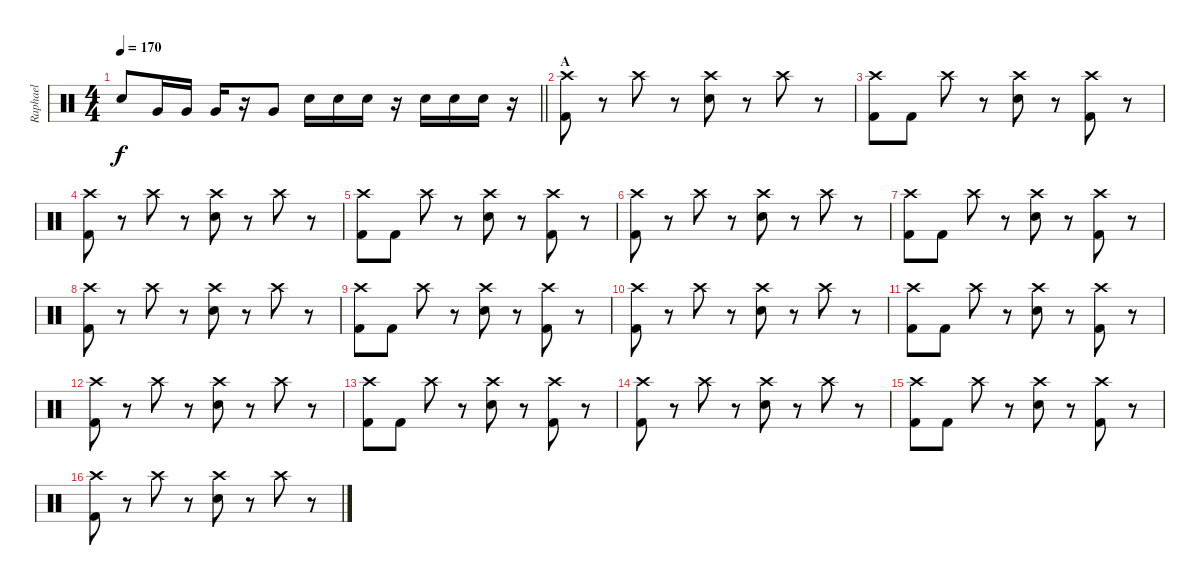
\track ("Raphael" "Raphael") {instrument percussion}
\staff {score}
\articulation defaults
\ts (4 4)
\tempo 170
\clef neutral
\barLineRight lightlight
\ks c "Snare (hit) 2".8{dy f} "Very Low Tom (hit)".16 "Very Low Tom (hit)".16 "Very Low Tom (hit)".16
r.16 "Very Low Tom (hit)".8 "Snare (hit) 2".16 "Snare (hit) 2".16 "Snare (hit) 2".16 r.16 "Snare (hit) 2".16 "Snare (hit) 2".16 "Snare (hit) 2".16 r.16 |
\section ("" "A")
("Kick (hit) 2" "Crash high (hit)").8 r.8 "Crash high (hit)".8 r.8 ("Snare (hit) 2" "Crash high (hit)").8 r.8 "Crash high (hit)".8 r.8 |
("Kick (hit) 2" "Crash high (hit)").8 "Kick (hit) 2".8 "Crash high (hit)".8 r.8 ("Snare (hit) 2" "Crash high (hit)").8 r.8 ("Kick (hit) 2" "Crash high (hit)").8 r.8 |
("Kick (hit) 2" "Crash high (hit)").8 r.8 "Crash high (hit)".8 r.8 ("Snare (hit) 2" "Crash high (hit)").8 r.8 "Crash high (hit)".8 r.8 |
("Kick (hit) 2" "Crash high (hit)").8 "Kick (hit) 2".8 "Crash high (hit)".8 r.8 ("Snare (hit) 2" "Crash high (hit)").8 r.8 ("Kick (hit) 2" "Crash high (hit)").8 r.8 |
("Kick (hit) 2" "Crash high (hit)").8 r.8 "Crash high (hit)".8 r.8 ("Snare (hit) 2" "Crash high (hit)").8 r.8 "Crash high (hit)".8 r.8 |
("Kick (hit) 2" "Crash high (hit)").8 "Kick (hit) 2".8 "Crash high (hit)".8 r.8 ("Snare (hit) 2" "Crash high (hit)").8 r.8 ("Kick (hit) 2" "Crash high (hit)").8 r.8 |
("Kick (hit) 2" "Crash high (hit)").8 r.8 "Crash high (hit)".8 r.8 ("Snare (hit) 2" "Crash high (hit)").8 r.8 "Crash high (hit)".8 r.8 |
("Kick (hit) 2" "Crash high (hit)").8 "Kick (hit) 2".8 "Crash high (hit)".8 r.8 ("Snare (hit) 2" "Crash high (hit)").8 r.8 ("Kick (hit) 2" "Crash high (hit)").8 r.8 |
("Kick (hit) 2" "Crash high (hit)").8 r.8 "Crash high (hit)".8 r.8 ("Snare (hit) 2" "Crash high (hit)").8 r.8 "Crash high (hit)".8 r.8 |
("Kick (hit) 2" "Crash high (hit)").8 "Kick (hit) 2".8 "Crash high (hit)".8 r.8 ("Snare (hit) 2" "Crash high (hit)").8 r.8 ("Kick (hit) 2" "Crash high (hit)").8 r.8 |
("Kick (hit) 2" "Crash high (hit)").8 r.8 "Crash high (hit)".8 r.8 ("Snare (hit) 2" "Crash high (hit)").8 r.8 "Crash high (hit)".8 r.8 |
("Kick (hit) 2" "Crash high (hit)").8 "Kick (hit) 2".8 "Crash high (hit)".8 r.8 ("Snare (hit) 2" "Crash high (hit)").8 r.8 ("Kick (hit) 2" "Crash high (hit)").8 r.8 |
("Kick (hit) 2" "Crash high (hit)").8 r.8 "Crash high (hit)".8 r.8 ("Snare (hit) 2" "Crash high (hit)").8 r.8 "Crash high (hit)".8 r.8 |
("Kick (hit) 2" "Crash high (hit)").8 "Kick (hit) 2".8 "Crash high (hit)".8 r.8 ("Snare (hit) 2" "Crash high (hit)").8 r.8 ("Kick (hit) 2" "Crash high (hit)").8 r.8 |
("Kick (hit) 2" "Crash high (hit)").8 r.8 "Crash high (hit)".8 r.8 ("Snare (hit) 2" "Crash high (hit)").8 r.8 "Crash high (hit)".8 r.8
